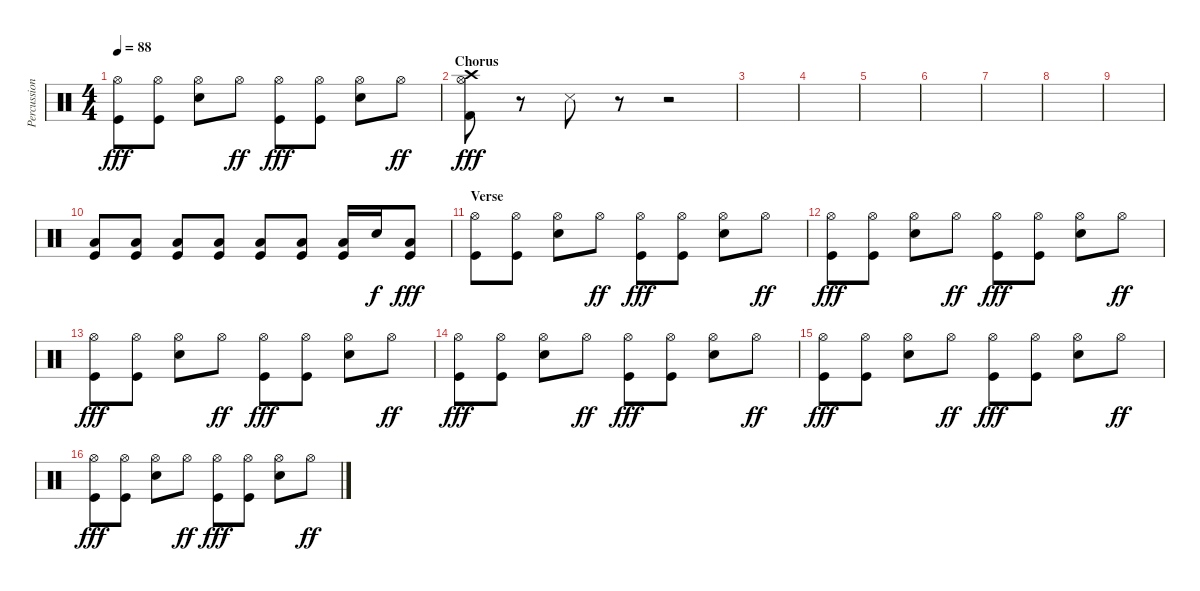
\track ("Percussions" "Percussion") {instrument percussion}
\staff {score}
\articulation defaults
\ts (4 4)
\tempo 88
\clef neutral
\ks c
("Hi-Hat (open)" "Kick (hit)").8{dy fff} ("Hi-Hat (open)" "Kick (hit)").8 ("Hi-Hat (open)" "Snare (hit) 2").8 "Hi-Hat (open)".8{dy ff} ("Hi-Hat (open)" "Kick (hit)").8{dy fff} ("Hi-Hat (open)" "Kick (hit)").8 ("Hi-Hat (open)" "Snare (hit) 2").8 "Hi-Hat (open)".8{dy ff} |
\section ("" "Chorus")
("Crash high (hit)" "Hi-Hat (open)" "Kick (hit) 2").8{dy fff} r.8 "Snare (side stick) 3".8 r.8 r.2 |
|
|
|
|
|
|
|
("Low Floor Tom (hit)" "Kick (hit)").8 ("Low Floor Tom (hit)" "Kick (hit)").8 ("Low Floor Tom (hit)" "Kick (hit)").8 ("Low Floor Tom (hit)" "Kick (hit)").8 ("Low Floor Tom (hit)" "Kick (hit)").8 ("Low Floor Tom (hit)" "Kick (hit)").8 ("Low Floor Tom (hit)" "Kick (hit)").16 "Snare (hit) 2".16{dy f} ("Low Floor Tom (hit)" "Kick (hit)").8{dy fff} |
\section ("" "Verse")
("Hi-Hat (open)" "Kick (hit)").8 ("Hi-Hat (open)" "Kick (hit)").8 ("Hi-Hat (open)" "Snare (hit) 2").8 "Hi-Hat (open)".8{dy ff} ("Hi-Hat (open)" "Kick (hit)").8{dy fff} ("Hi-Hat (open)" "Kick (hit)").8 ("Hi-Hat (open)" "Snare (hit) 2").8 "Hi-Hat (open)".8{dy ff} |
("Hi-Hat (open)" "Kick (hit)").8{dy fff} ("Hi-Hat (open)" "Kick (hit)").8 ("Hi-Hat (open)" "Snare (hit) 2").8 "Hi-Hat (open)".8{dy ff} ("Hi-Hat (open)" "Kick (hit)").8{dy fff} ("Hi-Hat (open)" "Kick (hit)").8 ("Hi-Hat (open)" "Snare (hit) 2").8 "Hi-Hat (open)".8{dy ff} |
("Hi-Hat (open)" "Kick (hit)").8{dy fff} ("Hi-Hat (open)" "Kick (hit)").8 ("Hi-Hat (open)" "Snare (hit) 2").8 "Hi-Hat (open)".8{dy ff} ("Hi-Hat (open)" "Kick (hit)").8{dy fff} ("Hi-Hat (open)" "Kick (hit)").8 ("Hi-Hat (open)" "Snare (hit) 2").8 "Hi-Hat (open)".8{dy ff} |
("Hi-Hat (open)" "Kick (hit)").8{dy fff} ("Hi-Hat (open)" "Kick (hit)").8 ("Hi-Hat (open)" "Snare (hit) 2").8 "Hi-Hat (open)".8{dy ff} ("Hi-Hat (open)" "Kick (hit)").8{dy fff} ("Hi-Hat (open)" "Kick (hit)").8 ("Hi-Hat (open)" "Snare (hit) 2").8 "Hi-Hat (open)".8{dy ff} |
("Hi-Hat (open)" "Kick (hit)").8{dy fff} ("Hi-Hat (open)" "Kick (hit)").8 ("Hi-Hat (open)" "Snare (hit) 2").8 "Hi-Hat (open)".8{dy ff} ("Hi-Hat (open)" "Kick (hit)").8{dy fff} ("Hi-Hat (open)" "Kick (hit)").8 ("Hi-Hat (open)" "Snare (hit) 2").8 "Hi-Hat (open)".8{dy ff} |
("Hi-Hat (open)" "Kick (hit)").8{dy fff} ("Hi-Hat (open)" "Kick (hit)").8 ("Hi-Hat (open)" "Snare (hit) 2").8 "Hi-Hat (open)".8{dy ff} ("Hi-Hat (open)" "Kick (hit)").8{dy fff} ("Hi-Hat (open)" "Kick (hit)").8 ("Hi-Hat (open)" "Snare (hit) 2").8 "Hi-Hat (open)".8{dy ff}
